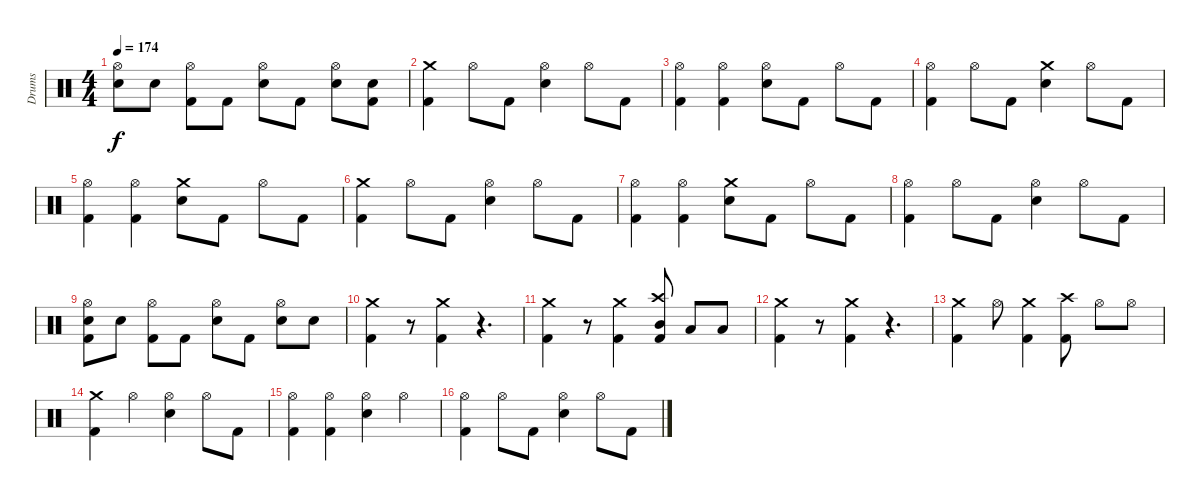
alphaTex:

\track ("Drums" "Drums") {instrument percussion}
\staff {score}
\articulation defaults
\ts (4 4)
\tempo 174
\clef neutral
\ks c
("Hi-Hat (open)" "Snare (hit) 2").8{dy f} "Snare (hit) 2".8 ("Hi-Hat (open)" "Kick (hit) 2").8 "Kick (hit) 2".8 ("Hi-Hat (open)" "Snare (hit) 2").8 "Kick (hit) 2".8 ("Hi-Hat (open)" "Snare (hit) 2").8 ("Snare (hit) 2" "Kick (hit) 2").8 |
("Crash medium (hit)" "Kick (hit) 2").4 "Hi-Hat (open)".8 "Kick (hit) 2".8 ("Hi-Hat (open)" "Snare (hit) 2").4 "Hi-Hat (open)".8 "Kick (hit) 2".8 |
("Hi-Hat (open)" "Kick (hit) 2").4 ("Hi-Hat (open)" "Kick (hit) 2").4 ("Hi-Hat (open)" "Snare (hit) 2").8 "Kick (hit) 2".8 "Hi-Hat (open)".8 "Kick (hit) 2".8 |
("Hi-Hat (open)" "Kick (hit) 2").4 "Hi-Hat (open)".8 "Kick (hit) 2".8 ("Crash medium (hit)" "Snare (hit) 2").4 "Hi-Hat (open)".8 "Kick (hit) 2".8 |
("Hi-Hat (open)" "Kick (hit) 2").4 ("Hi-Hat (open)" "Kick (hit) 2").4 ("Crash medium (hit)" "Snare (hit) 2").8 "Kick (hit) 2".8 "Hi-Hat (open)".8 "Kick (hit) 2".8 |
("Crash medium (hit)" "Kick (hit) 2").4 "Hi-Hat (open)".8 "Kick (hit) 2".8 ("Hi-Hat (open)" "Snare (hit) 2").4 "Hi-Hat (open)".8 "Kick (hit) 2".8 |
("Hi-Hat (open)" "Kick (hit) 2").4 ("Hi-Hat (open)" "Kick (hit) 2").4 ("Crash medium (hit)" "Snare (hit) 2").8 "Kick (hit) 2".8 "Hi-Hat (open)".8 "Kick (hit) 2".8 |
("Hi-Hat (open)" "Kick (hit) 2").4 "Hi-Hat (open)".8 "Kick (hit) 2".8 ("Hi-Hat (open)" "Snare (hit) 2").4 "Hi-Hat (open)".8 "Kick (hit) 2".8 |
("Hi-Hat (open)" "Snare (hit) 2" "Kick (hit) 2").8 "Snare (hit) 2".8 ("Hi-Hat (open)" "Kick (hit) 2").8 "Kick (hit) 2".8 ("Hi-Hat (open)" "Snare (hit) 2").8 "Kick (hit) 2".8 ("Hi-Hat (open)" "Snare (hit) 2").8 "Snare (hit) 2".8 |
("Crash medium (hit)" "Kick (hit) 2").4 r.8 ("Crash medium (hit)" "Kick (hit) 2").4 r.4{d} |
("Crash medium (hit)" "Kick (hit) 2").4 r.8 ("Crash medium (hit)" "Kick (hit) 2").4 ("Crash high (hit)" "Mid Tom (hit)" "Kick (hit) 2").8 "Low Tom (hit)".8 "Low Tom (hit)".8 |
("Crash medium (hit)" "Kick (hit) 2").4 r.8 ("Crash medium (hit)" "Kick (hit) 2").4 r.4{d} |
("Crash medium (hit)" "Kick (hit) 2").4 "Hi-Hat (open)".8 ("Crash medium (hit)" "Kick (hit) 2").4 ("Crash high (hit)" "Kick (hit) 2").8 "Hi-Hat (open)".8 "Hi-Hat (open)".8 |
("Crash medium (hit)" "Kick (hit) 2").4 "Hi-Hat (open)".4 ("Hi-Hat (open)" "Snare (hit) 2").4 "Hi-Hat (open)".8 "Kick (hit) 2".8 |
("Hi-Hat (open)" "Kick (hit) 2").4 ("Hi-Hat (open)" "Kick (hit) 2").4 ("Hi-Hat (open)" "Snare (hit) 2").4 "Hi-Hat (open)".4 |
("Hi-Hat (open)" "Kick (hit) 2").4 "Hi-Hat (open)".8 "Kick (hit) 2".8 ("Hi-Hat (open)" "Snare (hit) 2").4 "Hi-Hat (open)".8 "Kick (hit) 2".8
